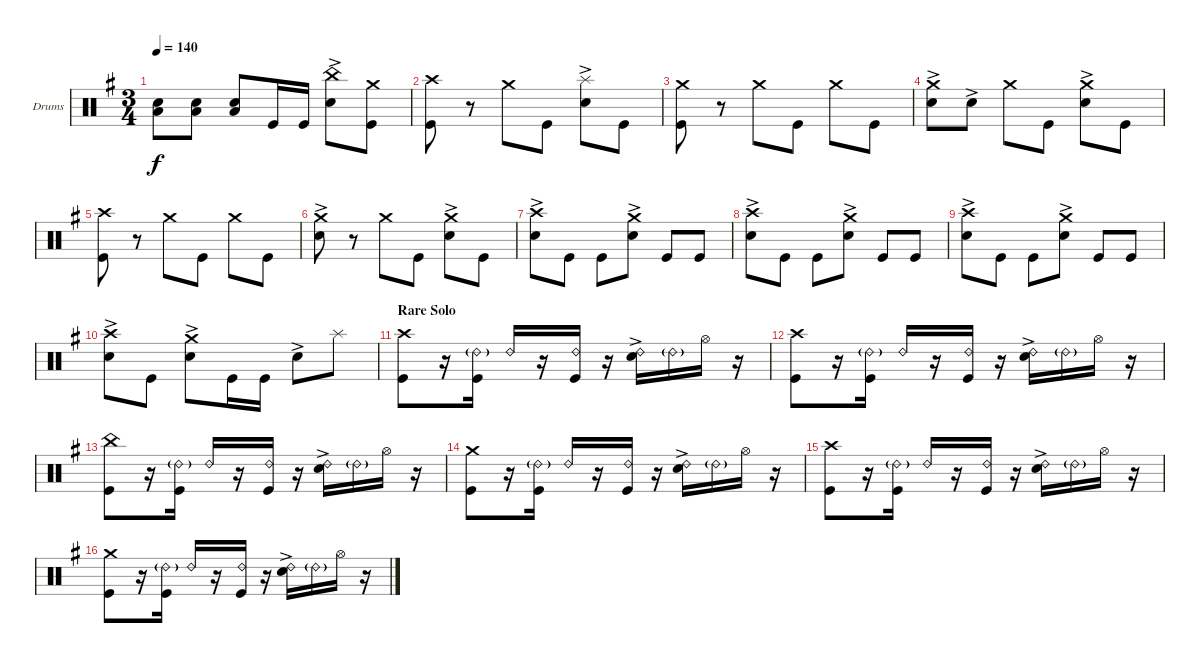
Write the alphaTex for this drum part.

\bracketExtendMode groupsimilarinstruments
\firstSystemTrackNameOrientation horizontal
\otherSystemsTrackNameOrientation horizontal
\track ("Drumkit" "Drums") {instrument percussion}
\staff {score}
\articulation defaults
\ts (3 4)
\tempo 140
\clef neutral
\ks eminor
("Snare (hit) 2" "Low Tom (hit)").8{dy f} ("Snare (hit) 2" "Low Tom (hit)").8 ("Snare (hit) 2" "Low Tom (hit)").8 "Kick (hit)".16 "Kick (hit)".16 ("Snare (hit) 2"{ac} "China (hit)").8 ("Kick (hit)" "Crash medium (hit)").8 |
("Kick (hit)" "Crash high (hit)").8 r.8 "Crash medium (hit)".8 "Kick (hit)".8 ("Snare (hit) 2"{ac} "Splash (hit)").8 "Kick (hit)".8 |
("Kick (hit)" "Crash medium (hit)").8 r.8 "Crash medium (hit)".8 "Kick (hit)".8 "Crash medium (hit)".8 "Kick (hit)".8 |
("Snare (hit) 2"{ac} "Crash medium (hit)").8 "Snare (hit) 2"{ac}.8 "Crash medium (hit)".8 "Kick (hit)".8 ("Snare (hit) 2"{ac} "Crash medium (hit)").8 "Kick (hit)".8 |
("Kick (hit)" "Crash high (hit)").8 r.8 "Crash medium (hit)".8 "Kick (hit)".8 "Crash medium (hit)".8 "Kick (hit)".8 |
("Snare (hit) 2"{ac} "Crash medium (hit)").8 r.8 "Crash medium (hit)".8 "Kick (hit)".8 ("Snare (hit) 2"{ac} "Crash medium (hit)").8 "Kick (hit)".8 |
("Snare (hit) 2"{ac} "Crash high (hit)").8 "Kick (hit)".8 "Kick (hit)".8 ("Snare (hit) 2"{ac} "Crash medium (hit)").8 "Kick (hit)".8 "Kick (hit)".8 |
("Snare (hit) 2"{ac} "Crash high (hit)").8 "Kick (hit)".8 "Kick (hit)".8 ("Snare (hit) 2"{ac} "Crash medium (hit)").8 "Kick (hit)".8 "Kick (hit)".8 |
("Snare (hit) 2"{ac} "Crash high (hit)").8 "Kick (hit)".8 "Kick (hit)".8 ("Snare (hit) 2"{ac} "Crash medium (hit)").8 "Kick (hit)".8 "Kick (hit)".8 |
("Snare (hit) 2"{ac} "Crash high (hit)").8 "Kick (hit)".8 ("Snare (hit) 2"{ac} "Crash medium (hit)").8 "Kick (hit)".16 "Kick (hit)".16 "Snare (hit) 2"{ac}.8 "Splash (hit)".8 |
\section ("" "Rare Solo")
("Kick (hit)" "Crash high (hit)").8 r.16 ("Ride (bell) 2"{g} "Kick (hit)").16 "Ride (bell) 2".16 r.16 ("Ride (bell) 2" "Kick (hit)").16 r.16 ("Ride (bell) 2" "Snare (hit) 2"{ac}).16 "Ride (bell) 2"{g}.16 "Hi-Hat (open)".16 r.16 |
("Kick (hit)" "Crash high (hit)").8 r.16 ("Ride (bell) 2"{g} "Kick (hit)").16 "Ride (bell) 2".16 r.16 ("Ride (bell) 2" "Kick (hit)").16 r.16 ("Ride (bell) 2" "Snare (hit) 2"{ac}).16 "Ride (bell) 2"{g}.16 "Hi-Hat (open)".16 r.16 |
("Kick (hit)" "China (hit)").8 r.16 ("Ride (bell) 2"{g} "Kick (hit)").16 "Ride (bell) 2".16 r.16 ("Ride (bell) 2" "Kick (hit)").16 r.16 ("Ride (bell) 2" "Snare (hit) 2"{ac}).16 "Ride (bell) 2"{g}.16 "Hi-Hat (open)".16 r.16 |
("Kick (hit)" "Crash medium (hit)").8 r.16 ("Ride (bell) 2"{g} "Kick (hit)").16 "Ride (bell) 2".16 r.16 ("Ride (bell) 2" "Kick (hit)").16 r.16 ("Ride (bell) 2" "Snare (hit) 2"{ac}).16 "Ride (bell) 2"{g}.16 "Hi-Hat (open)".16 r.16 |
("Kick (hit)" "Crash high (hit)").8 r.16 ("Ride (bell) 2"{g} "Kick (hit)").16 "Ride (bell) 2".16 r.16 ("Ride (bell) 2" "Kick (hit)").16 r.16 ("Ride (bell) 2" "Snare (hit) 2"{ac}).16 "Ride (bell) 2"{g}.16 "Hi-Hat (open)".16 r.16 |
("Kick (hit)" "Crash medium (hit)").8 r.16 ("Ride (bell) 2"{g} "Kick (hit)").16 "Ride (bell) 2".16 r.16 ("Ride (bell) 2" "Kick (hit)").16 r.16 ("Ride (bell) 2" "Snare (hit) 2"{ac}).16 "Ride (bell) 2"{g}.16 "Hi-Hat (open)".16 r.16
